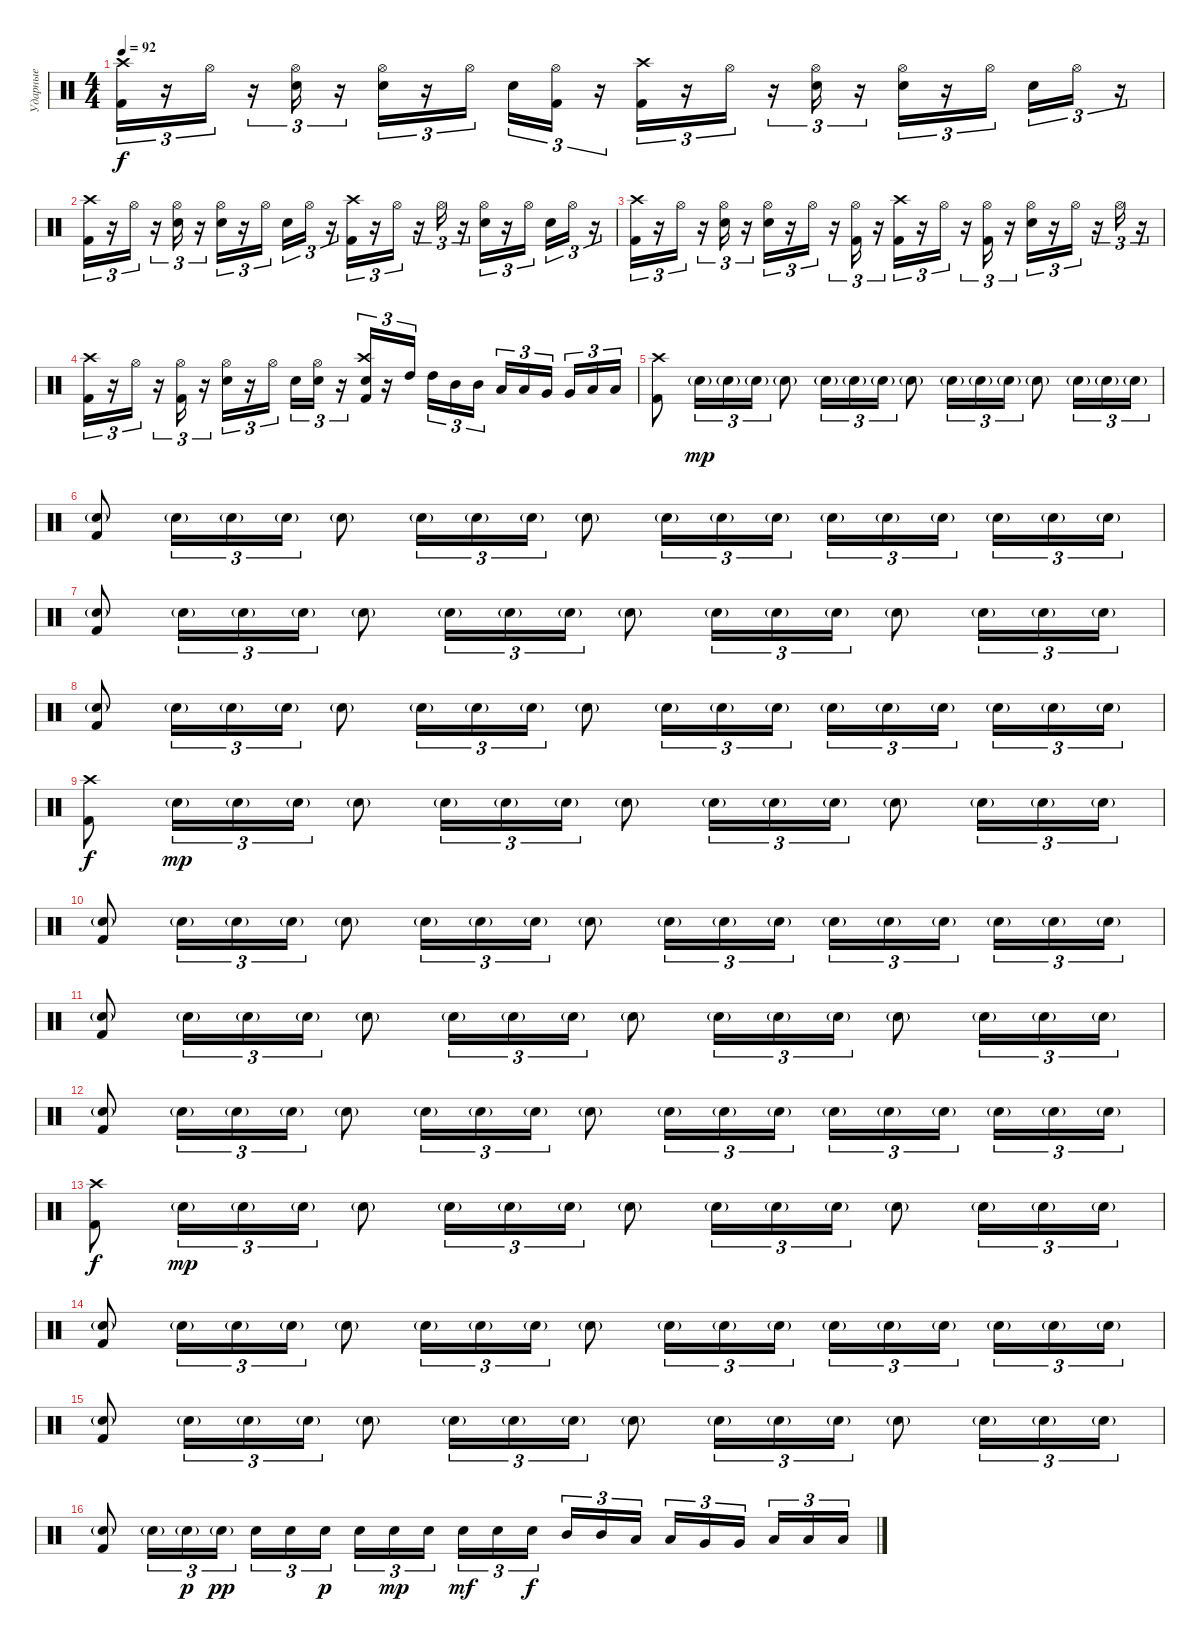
\track ("Ударные" "Ударные") {instrument percussion}
\staff {score}
\articulation defaults
\ts (4 4)
\tempo 92
\clef neutral
\ks c
("Kick (hit) 2" "Crash high (hit)").16{tu (3 2) dy f} r.16{tu (3 2)} "Hi-Hat (open)".16{tu (3 2)} r.16{tu (3 2)} ("Hi-Hat (open)" "Electric Snare (hit)").16{tu (3 2)} r.16{tu (3 2)} ("Hi-Hat (open)" "Electric Snare (hit)").16{tu (3 2)} r.16{tu (3 2)} "Hi-Hat (open)".16{tu (3 2)} "Electric Snare (hit)".16{tu (3 2)} ("Kick (hit) 2" "Hi-Hat (open)").16{tu (3 2)} r.16{tu (3 2)} ("Kick (hit) 2" "Crash high (hit)").16{tu (3 2)} r.16{tu (3 2)} "Hi-Hat (open)".16{tu (3 2)} r.16{tu (3 2)} ("Hi-Hat (open)" "Electric Snare (hit)").16{tu (3 2)} r.16{tu (3 2)} ("Hi-Hat (open)" "Electric Snare (hit)").16{tu (3 2)} r.16{tu (3 2)} "Hi-Hat (open)".16{tu (3 2)} "Electric Snare (hit)".16{tu (3 2)} "Hi-Hat (open)".16{tu (3 2)} r.16{tu (3 2)} |
("Kick (hit) 2" "Crash high (hit)").16{tu (3 2)} r.16{tu (3 2)} "Hi-Hat (open)".16{tu (3 2)} r.16{tu (3 2)} ("Hi-Hat (open)" "Electric Snare (hit)").16{tu (3 2)} r.16{tu (3 2)} ("Hi-Hat (open)" "Electric Snare (hit)").16{tu (3 2)} r.16{tu (3 2)} "Hi-Hat (open)".16{tu (3 2)} "Electric Snare (hit)".16{tu (3 2)} "Hi-Hat (open)".16{tu (3 2)} r.16{tu (3 2)} ("Kick (hit) 2" "Crash high (hit)").16{tu (3 2)} r.16{tu (3 2)} "Hi-Hat (open)".16{tu (3 2)} r.16{tu (3 2)} "Hi-Hat (open)".16{tu (3 2)} r.16{tu (3 2)} ("Hi-Hat (open)" "Electric Snare (hit)").16{tu (3 2)} r.16{tu (3 2)} "Hi-Hat (open)".16{tu (3 2)} "Electric Snare (hit)".16{tu (3 2)} "Hi-Hat (open)".16{tu (3 2)} r.16{tu (3 2)} |
("Kick (hit) 2" "Crash high (hit)").16{tu (3 2)} r.16{tu (3 2)} "Hi-Hat (open)".16{tu (3 2)} r.16{tu (3 2)} ("Hi-Hat (open)" "Electric Snare (hit)").16{tu (3 2)} r.16{tu (3 2)} ("Hi-Hat (open)" "Electric Snare (hit)").16{tu (3 2)} r.16{tu (3 2)} "Hi-Hat (open)".16{tu (3 2)} r.16{tu (3 2)} ("Kick (hit) 2" "Hi-Hat (open)").16{tu (3 2)} r.16{tu (3 2)} ("Kick (hit) 2" "Crash high (hit)").16{tu (3 2)} r.16{tu (3 2)} "Hi-Hat (open)".16{tu (3 2)} r.16{tu (3 2)} ("Kick (hit) 2" "Hi-Hat (open)").16{tu (3 2)} r.16{tu (3 2)} ("Hi-Hat (open)" "Electric Snare (hit)").16{tu (3 2)} r.16{tu (3 2)} "Hi-Hat (open)".16{tu (3 2)} r.16{tu (3 2)} "Hi-Hat (open)".16{tu (3 2)} r.16{tu (3 2)} |
("Kick (hit) 2" "Crash high (hit)").16{tu (3 2)} r.16{tu (3 2)} "Hi-Hat (open)".16{tu (3 2)} r.16{tu (3 2)} ("Kick (hit) 2" "Hi-Hat (open)").16{tu (3 2)} r.16{tu (3 2)} ("Hi-Hat (open)" "Electric Snare (hit)").16{tu (3 2)} r.16{tu (3 2)} "Hi-Hat (open)".16{tu (3 2)} "Electric Snare (hit)".16{tu (3 2)} ("Hi-Hat (open)" "Electric Snare (hit)").16{tu (3 2)} r.16{tu (3 2)} ("Kick (hit) 2" "Crash high (hit)" "Electric Snare (hit)").16{tu (3 2)} r.16{tu (3 2)} "High Tom (hit)".16{tu (3 2)} "High Tom (hit)".16{tu (3 2)} "Mid Tom (hit)".16{tu (3 2)} "Mid Tom (hit)".16{tu (3 2)} "Low Tom (hit)".16{tu (3 2)} "Low Tom (hit)".16{tu (3 2)} "Very Low Tom (hit)".16{tu (3 2)} "Very Low Tom (hit)".16{tu (3 2)} "Low Floor Tom (hit)".16{tu (3 2)} "Low Floor Tom (hit)".16{tu (3 2)} |
("Kick (hit) 2" "Crash high (hit)").8 "Electric Snare (hit)"{g}.16{tu (3 2) dy mp} "Electric Snare (hit)"{g}.16{tu (3 2)} "Electric Snare (hit)"{g}.16{tu (3 2)} "Electric Snare (hit)"{g}.8 "Electric Snare (hit)"{g}.16{tu (3 2)} "Electric Snare (hit)"{g}.16{tu (3 2)} "Electric Snare (hit)"{g}.16{tu (3 2)} "Electric Snare (hit)"{g}.8 "Electric Snare (hit)"{g}.16{tu (3 2)} "Electric Snare (hit)"{g}.16{tu (3 2)} "Electric Snare (hit)"{g}.16{tu (3 2)} "Electric Snare (hit)"{g}.8 "Electric Snare (hit)"{g}.16{tu (3 2)} "Electric Snare (hit)"{g}.16{tu (3 2)} "Electric Snare (hit)"{g}.16{tu (3 2)} |
("Electric Snare (hit)"{g} "Kick (hit) 2").8 "Electric Snare (hit)"{g}.16{tu (3 2)} "Electric Snare (hit)"{g}.16{tu (3 2)} "Electric Snare (hit)"{g}.16{tu (3 2)} "Electric Snare (hit)"{g}.8 "Electric Snare (hit)"{g}.16{tu (3 2)} "Electric Snare (hit)"{g}.16{tu (3 2)} "Electric Snare (hit)"{g}.16{tu (3 2)} "Electric Snare (hit)"{g}.8 "Electric Snare (hit)"{g}.16{tu (3 2)} "Electric Snare (hit)"{g}.16{tu (3 2)} "Electric Snare (hit)"{g}.16{tu (3 2)} "Electric Snare (hit)"{g}.16{tu (3 2)} "Electric Snare (hit)"{g}.16{tu (3 2)} "Electric Snare (hit)"{g}.16{tu (3 2)} "Electric Snare (hit)"{g}.16{tu (3 2)} "Electric Snare (hit)"{g}.16{tu (3 2)} "Electric Snare (hit)"{g}.16{tu (3 2)} |
("Electric Snare (hit)"{g} "Kick (hit) 2").8 "Electric Snare (hit)"{g}.16{tu (3 2)} "Electric Snare (hit)"{g}.16{tu (3 2)} "Electric Snare (hit)"{g}.16{tu (3 2)} "Electric Snare (hit)"{g}.8 "Electric Snare (hit)"{g}.16{tu (3 2)} "Electric Snare (hit)"{g}.16{tu (3 2)} "Electric Snare (hit)"{g}.16{tu (3 2)} "Electric Snare (hit)"{g}.8 "Electric Snare (hit)"{g}.16{tu (3 2)} "Electric Snare (hit)"{g}.16{tu (3 2)} "Electric Snare (hit)"{g}.16{tu (3 2)} "Electric Snare (hit)"{g}.8 "Electric Snare (hit)"{g}.16{tu (3 2)} "Electric Snare (hit)"{g}.16{tu (3 2)} "Electric Snare (hit)"{g}.16{tu (3 2)} |
("Electric Snare (hit)"{g} "Kick (hit) 2").8 "Electric Snare (hit)"{g}.16{tu (3 2)} "Electric Snare (hit)"{g}.16{tu (3 2)} "Electric Snare (hit)"{g}.16{tu (3 2)} "Electric Snare (hit)"{g}.8 "Electric Snare (hit)"{g}.16{tu (3 2)} "Electric Snare (hit)"{g}.16{tu (3 2)} "Electric Snare (hit)"{g}.16{tu (3 2)} "Electric Snare (hit)"{g}.8 "Electric Snare (hit)"{g}.16{tu (3 2)} "Electric Snare (hit)"{g}.16{tu (3 2)} "Electric Snare (hit)"{g}.16{tu (3 2)} "Electric Snare (hit)"{g}.16{tu (3 2)} "Electric Snare (hit)"{g}.16{tu (3 2)} "Electric Snare (hit)"{g}.16{tu (3 2)} "Electric Snare (hit)"{g}.16{tu (3 2)} "Electric Snare (hit)"{g}.16{tu (3 2)} "Electric Snare (hit)"{g}.16{tu (3 2)} |
("Kick (hit) 2" "Crash high (hit)").8{dy f} "Electric Snare (hit)"{g}.16{tu (3 2) dy mp} "Electric Snare (hit)"{g}.16{tu (3 2)} "Electric Snare (hit)"{g}.16{tu (3 2)} "Electric Snare (hit)"{g}.8 "Electric Snare (hit)"{g}.16{tu (3 2)} "Electric Snare (hit)"{g}.16{tu (3 2)} "Electric Snare (hit)"{g}.16{tu (3 2)} "Electric Snare (hit)"{g}.8 "Electric Snare (hit)"{g}.16{tu (3 2)} "Electric Snare (hit)"{g}.16{tu (3 2)} "Electric Snare (hit)"{g}.16{tu (3 2)} "Electric Snare (hit)"{g}.8 "Electric Snare (hit)"{g}.16{tu (3 2)} "Electric Snare (hit)"{g}.16{tu (3 2)} "Electric Snare (hit)"{g}.16{tu (3 2)} |
("Electric Snare (hit)"{g} "Kick (hit) 2").8 "Electric Snare (hit)"{g}.16{tu (3 2)} "Electric Snare (hit)"{g}.16{tu (3 2)} "Electric Snare (hit)"{g}.16{tu (3 2)} "Electric Snare (hit)"{g}.8 "Electric Snare (hit)"{g}.16{tu (3 2)} "Electric Snare (hit)"{g}.16{tu (3 2)} "Electric Snare (hit)"{g}.16{tu (3 2)} "Electric Snare (hit)"{g}.8 "Electric Snare (hit)"{g}.16{tu (3 2)} "Electric Snare (hit)"{g}.16{tu (3 2)} "Electric Snare (hit)"{g}.16{tu (3 2)} "Electric Snare (hit)"{g}.16{tu (3 2)} "Electric Snare (hit)"{g}.16{tu (3 2)} "Electric Snare (hit)"{g}.16{tu (3 2)} "Electric Snare (hit)"{g}.16{tu (3 2)} "Electric Snare (hit)"{g}.16{tu (3 2)} "Electric Snare (hit)"{g}.16{tu (3 2)} |
("Electric Snare (hit)"{g} "Kick (hit) 2").8 "Electric Snare (hit)"{g}.16{tu (3 2)} "Electric Snare (hit)"{g}.16{tu (3 2)} "Electric Snare (hit)"{g}.16{tu (3 2)} "Electric Snare (hit)"{g}.8 "Electric Snare (hit)"{g}.16{tu (3 2)} "Electric Snare (hit)"{g}.16{tu (3 2)} "Electric Snare (hit)"{g}.16{tu (3 2)} "Electric Snare (hit)"{g}.8 "Electric Snare (hit)"{g}.16{tu (3 2)} "Electric Snare (hit)"{g}.16{tu (3 2)} "Electric Snare (hit)"{g}.16{tu (3 2)} "Electric Snare (hit)"{g}.8 "Electric Snare (hit)"{g}.16{tu (3 2)} "Electric Snare (hit)"{g}.16{tu (3 2)} "Electric Snare (hit)"{g}.16{tu (3 2)} |
("Electric Snare (hit)"{g} "Kick (hit) 2").8 "Electric Snare (hit)"{g}.16{tu (3 2)} "Electric Snare (hit)"{g}.16{tu (3 2)} "Electric Snare (hit)"{g}.16{tu (3 2)} "Electric Snare (hit)"{g}.8 "Electric Snare (hit)"{g}.16{tu (3 2)} "Electric Snare (hit)"{g}.16{tu (3 2)} "Electric Snare (hit)"{g}.16{tu (3 2)} "Electric Snare (hit)"{g}.8 "Electric Snare (hit)"{g}.16{tu (3 2)} "Electric Snare (hit)"{g}.16{tu (3 2)} "Electric Snare (hit)"{g}.16{tu (3 2)} "Electric Snare (hit)"{g}.16{tu (3 2)} "Electric Snare (hit)"{g}.16{tu (3 2)} "Electric Snare (hit)"{g}.16{tu (3 2)} "Electric Snare (hit)"{g}.16{tu (3 2)} "Electric Snare (hit)"{g}.16{tu (3 2)} "Electric Snare (hit)"{g}.16{tu (3 2)} |
("Kick (hit) 2" "Crash high (hit)").8{dy f} "Electric Snare (hit)"{g}.16{tu (3 2) dy mp} "Electric Snare (hit)"{g}.16{tu (3 2)} "Electric Snare (hit)"{g}.16{tu (3 2)} "Electric Snare (hit)"{g}.8 "Electric Snare (hit)"{g}.16{tu (3 2)} "Electric Snare (hit)"{g}.16{tu (3 2)} "Electric Snare (hit)"{g}.16{tu (3 2)} "Electric Snare (hit)"{g}.8 "Electric Snare (hit)"{g}.16{tu (3 2)} "Electric Snare (hit)"{g}.16{tu (3 2)} "Electric Snare (hit)"{g}.16{tu (3 2)} "Electric Snare (hit)"{g}.8 "Electric Snare (hit)"{g}.16{tu (3 2)} "Electric Snare (hit)"{g}.16{tu (3 2)} "Electric Snare (hit)"{g}.16{tu (3 2)} |
("Electric Snare (hit)"{g} "Kick (hit) 2").8 "Electric Snare (hit)"{g}.16{tu (3 2)} "Electric Snare (hit)"{g}.16{tu (3 2)} "Electric Snare (hit)"{g}.16{tu (3 2)} "Electric Snare (hit)"{g}.8 "Electric Snare (hit)"{g}.16{tu (3 2)} "Electric Snare (hit)"{g}.16{tu (3 2)} "Electric Snare (hit)"{g}.16{tu (3 2)} "Electric Snare (hit)"{g}.8 "Electric Snare (hit)"{g}.16{tu (3 2)} "Electric Snare (hit)"{g}.16{tu (3 2)} "Electric Snare (hit)"{g}.16{tu (3 2)} "Electric Snare (hit)"{g}.16{tu (3 2)} "Electric Snare (hit)"{g}.16{tu (3 2)} "Electric Snare (hit)"{g}.16{tu (3 2)} "Electric Snare (hit)"{g}.16{tu (3 2)} "Electric Snare (hit)"{g}.16{tu (3 2)} "Electric Snare (hit)"{g}.16{tu (3 2)} |
("Electric Snare (hit)"{g} "Kick (hit) 2").8 "Electric Snare (hit)"{g}.16{tu (3 2)} "Electric Snare (hit)"{g}.16{tu (3 2)} "Electric Snare (hit)"{g}.16{tu (3 2)} "Electric Snare (hit)"{g}.8 "Electric Snare (hit)"{g}.16{tu (3 2)} "Electric Snare (hit)"{g}.16{tu (3 2)} "Electric Snare (hit)"{g}.16{tu (3 2)} "Electric Snare (hit)"{g}.8 "Electric Snare (hit)"{g}.16{tu (3 2)} "Electric Snare (hit)"{g}.16{tu (3 2)} "Electric Snare (hit)"{g}.16{tu (3 2)} "Electric Snare (hit)"{g}.8 "Electric Snare (hit)"{g}.16{tu (3 2)} "Electric Snare (hit)"{g}.16{tu (3 2)} "Electric Snare (hit)"{g}.16{tu (3 2)} |
("Electric Snare (hit)"{g} "Kick (hit) 2").8 "Electric Snare (hit)"{g}.16{tu (3 2)} "Electric Snare (hit)"{g}.16{tu (3 2) dy p} "Electric Snare (hit)"{g}.16{tu (3 2) dy pp} "Electric Snare (hit)".16{tu (3 2)} "Electric Snare (hit)".16{tu (3 2)} "Electric Snare (hit)".16{tu (3 2) dy p} "Electric Snare (hit)".16{tu (3 2)} "Electric Snare (hit)".16{tu (3 2) dy mp} "Electric Snare (hit)".16{tu (3 2)} "Electric Snare (hit)".16{tu (3 2) dy mf} "Electric Snare (hit)".16{tu (3 2)} "Electric Snare (hit)".16{tu (3 2) dy f} "Mid Tom (hit)".16{tu (3 2)} "Mid Tom (hit)".16{tu (3 2)} "Low Tom (hit)".16{tu (3 2)} "Low Tom (hit)".16{tu (3 2)} "Very Low Tom (hit)".16{tu (3 2)} "Very Low Tom (hit)".16{tu (3 2)} "Low Floor Tom (hit)".16{tu (3 2)} "Low Floor Tom (hit)".16{tu (3 2)} "Low Floor Tom (hit)".16{tu (3 2)}
